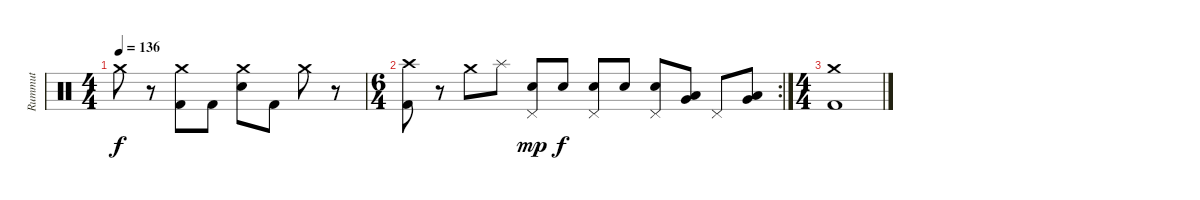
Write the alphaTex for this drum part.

\track ("Rummut" "Rummut") {instrument percussion}
\staff {score}
\articulation defaults
\ts (4 4)
\tempo 136
\clef neutral
\ks c "Crash medium (hit)".8{dy f}
r.8 ("Crash medium (hit)" "Kick (hit) 2").8 "Kick (hit) 2".8 ("Crash medium (hit)" "Electric Snare (hit)").8 "Kick (hit) 2".8 "Crash medium (hit)".8 r.8 |
\rc 2
\ts (6 4)
("Crash high (hit)" "Kick (hit) 2").8 r.8 "Crash medium (hit)".8 "Splash (hit)".8 ("Pedal Hi-Hat (hit)" "Electric Snare (hit)").8{dy mp} "Electric Snare (hit)".8{dy f} ("Pedal Hi-Hat (hit)" "Electric Snare (hit)").8 "Electric Snare (hit)".8 ("Pedal Hi-Hat (hit)" "Electric Snare (hit)").8 ("Very Low Tom (hit)" "Low Floor Tom (hit)").8 "Pedal Hi-Hat (hit)".8 ("Very Low Tom (hit)" "Low Floor Tom (hit)").8 |
\ts (4 4)
("Crash medium (hit)" "Kick (hit) 2").1
